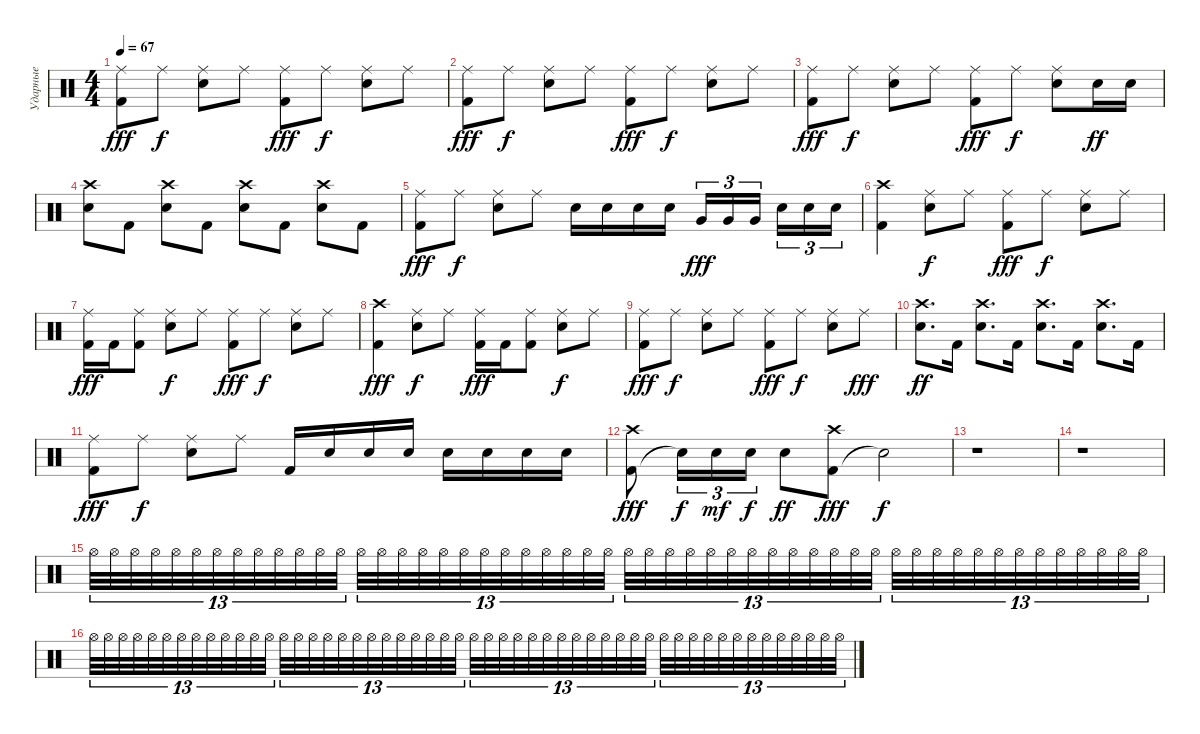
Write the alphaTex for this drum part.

\track ("Ударные" "Ударные") {instrument percussion}
\staff
\articulation defaults
\ts (4 4)
\tempo 67
\clef neutral
\ks c
("Kick (hit) 2" "Ride (middle)").8{dy fff} "Ride (middle)".8{dy f} ("Snare (hit) 2" "Ride (middle)").8 "Ride (middle)".8 ("Kick (hit) 2" "Ride (middle)").8{dy fff} "Ride (middle)".8{dy f} ("Snare (hit) 2" "Ride (middle)").8 "Ride (middle)".8 |
("Kick (hit) 2" "Ride (middle)").8{dy fff} "Ride (middle)".8{dy f} ("Snare (hit) 2" "Ride (middle)").8 "Ride (middle)".8 ("Kick (hit) 2" "Ride (middle)").8{dy fff} "Ride (middle)".8{dy f} ("Snare (hit) 2" "Ride (middle)").8 "Ride (middle)".8 |
("Kick (hit) 2" "Ride (middle)").8{dy fff} "Ride (middle)".8{dy f} ("Snare (hit) 2" "Ride (middle)").8 "Ride (middle)".8 ("Kick (hit) 2" "Ride (middle)").8{dy fff} "Ride (middle)".8{dy f} ("Snare (hit) 2" "Ride (middle)").8 "Electric Snare (hit)".16{dy ff} "Electric Snare (hit)".16 |
("Snare (hit) 2" "Crash high (hit)").8 "Kick (hit) 2".8 ("Snare (hit) 2" "Crash high (hit)").8 "Kick (hit) 2".8 ("Snare (hit) 2" "Crash high (hit)").8 "Kick (hit) 2".8 ("Snare (hit) 2" "Crash high (hit)").8 "Kick (hit) 2".8 |
("Kick (hit) 2" "Ride (middle)").8{dy fff} "Ride (middle)".8{dy f} ("Snare (hit) 2" "Ride (middle)").8 "Ride (middle)".8 "Snare (hit) 2".16 "Snare (hit) 2".16 "Snare (hit) 2".16 "Snare (hit) 2".16 "Very Low Tom (hit)".16{tu (3 2) dy fff} "Very Low Tom (hit)".16{tu (3 2)} "Very Low Tom (hit)".16{tu (3 2) beam splitsecondary} "Electric Snare (hit)".16{tu (3 2)} "Electric Snare (hit)".16{tu (3 2)} "Electric Snare (hit)".16{tu (3 2)} |
("Kick (hit) 2" "Crash high (hit)").4 ("Snare (hit) 2" "Ride (middle)").8{dy f} "Ride (middle)".8 ("Kick (hit) 2" "Ride (middle)").8{dy fff} "Ride (middle)".8{dy f} ("Snare (hit) 2" "Ride (middle)").8 "Ride (middle)".8 |
("Kick (hit) 2" "Ride (middle)").16{dy fff} "Kick (hit) 2".16 ("Kick (hit) 2" "Ride (middle)").8 ("Snare (hit) 2" "Ride (middle)").8{dy f} "Ride (middle)".8 ("Kick (hit) 2" "Ride (middle)").8{dy fff} "Ride (middle)".8{dy f} ("Snare (hit) 2" "Ride (middle)").8 "Ride (middle)".8 |
("Kick (hit) 2" "Crash high (hit)").4{dy fff} ("Snare (hit) 2" "Ride (middle)").8{dy f} "Ride (middle)".8 ("Kick (hit) 2" "Ride (middle)").16{dy fff} "Kick (hit) 2".16 ("Kick (hit) 2" "Ride (middle)").8 ("Snare (hit) 2" "Ride (middle)").8{dy f} "Ride (middle)".8 |
("Kick (hit) 2" "Ride (middle)").8{dy fff} "Ride (middle)".8{dy f} ("Snare (hit) 2" "Ride (middle)").8 "Ride (middle)".8 ("Kick (hit) 2" "Ride (middle)").8{dy fff} "Ride (middle)".8{dy f} ("Snare (hit) 2" "Ride (middle)").8 "Ride (middle)".8{dy fff} |
("Snare (hit) 2" "Crash high (hit)").8{d dy ff} "Kick (hit) 2".16 ("Snare (hit) 2" "Crash high (hit)").8{d} "Kick (hit) 2".16 ("Snare (hit) 2" "Crash high (hit)").8{d} "Kick (hit) 2".16 ("Snare (hit) 2" "Crash high (hit)").8{d} "Kick (hit) 2".16 |
("Kick (hit) 2" "Ride (middle)").8{dy fff} "Ride (middle)".8{dy f} ("Snare (hit) 2" "Ride (middle)").8 "Ride (middle)".8 "Kick (hit) 2".16 "Electric Snare (hit)".16 "Electric Snare (hit)".16 "Electric Snare (hit)".16 "Electric Snare (hit)".16 "Electric Snare (hit)".16 "Electric Snare (hit)".16 "Electric Snare (hit)".16 |
("Kick (hit) 2" "Crash high (hit)").8{dy fff} "Snare (hit)"{t}.16{tu (3 2) dy f} "Snare (hit) 2".16{tu (3 2) dy mf} "Snare (hit) 2".16{tu (3 2) dy f} "Snare (hit) 2".8{dy ff} ("Kick (hit) 2" "Crash high (hit)").8{dy fff} "Snare (hit)"{t}.2{dy f} |
r.1 |
r.1{volume 2} |
"Hi-Hat (open)".32{tu (13 8) volume 11} "Hi-Hat (open)".32{tu (13 8)} "Hi-Hat (open)".32{tu (13 8)} "Hi-Hat (open)".32{tu (13 8)} "Hi-Hat (open)".32{tu (13 8)} "Hi-Hat (open)".32{tu (13 8)} "Hi-Hat (open)".32{tu (13 8)} "Hi-Hat (open)".32{tu (13 8)} "Hi-Hat (open)".32{tu (13 8)} "Hi-Hat (open)".32{tu (13 8)} "Hi-Hat (open)".32{tu (13 8)} "Hi-Hat (open)".32{tu (13 8)} "Hi-Hat (open)".32{tu (13 8)} "Hi-Hat (open)".32{tu (13 8)} "Hi-Hat (open)".32{tu (13 8)} "Hi-Hat (open)".32{tu (13 8)} "Hi-Hat (open)".32{tu (13 8)} "Hi-Hat (open)".32{tu (13 8)} "Hi-Hat (open)".32{tu (13 8)} "Hi-Hat (open)".32{tu (13 8)} "Hi-Hat (open)".32{tu (13 8)} "Hi-Hat (open)".32{tu (13 8)} "Hi-Hat (open)".32{tu (13 8)} "Hi-Hat (open)".32{tu (13 8)} "Hi-Hat (open)".32{tu (13 8)} "Hi-Hat (open)".32{tu (13 8)} "Hi-Hat (open)".32{tu (13 8)} "Hi-Hat (open)".32{tu (13 8)} "Hi-Hat (open)".32{tu (13 8)} "Hi-Hat (open)".32{tu (13 8)} "Hi-Hat (open)".32{tu (13 8)} "Hi-Hat (open)".32{tu (13 8)} "Hi-Hat (open)".32{tu (13 8)} "Hi-Hat (open)".32{tu (13 8)} "Hi-Hat (open)".32{tu (13 8)} "Hi-Hat (open)".32{tu (13 8)} "Hi-Hat (open)".32{tu (13 8)} "Hi-Hat (open)".32{tu (13 8)} "Hi-Hat (open)".32{tu (13 8)} "Hi-Hat (open)".32{tu (13 8)} "Hi-Hat (open)".32{tu (13 8)} "Hi-Hat (open)".32{tu (13 8)} "Hi-Hat (open)".32{tu (13 8)} "Hi-Hat (open)".32{tu (13 8)} "Hi-Hat (open)".32{tu (13 8)} "Hi-Hat (open)".32{tu (13 8)} "Hi-Hat (open)".32{tu (13 8)} "Hi-Hat (open)".32{tu (13 8)} "Hi-Hat (open)".32{tu (13 8)} "Hi-Hat (open)".32{tu (13 8)} "Hi-Hat (open)".32{tu (13 8)} "Hi-Hat (open)".32{tu (13 8)} |
"Hi-Hat (open)".32{tu (13 8)} "Hi-Hat (open)".32{tu (13 8)} "Hi-Hat (open)".32{tu (13 8)} "Hi-Hat (open)".32{tu (13 8)} "Hi-Hat (open)".32{tu (13 8)} "Hi-Hat (open)".32{tu (13 8)} "Hi-Hat (open)".32{tu (13 8)} "Hi-Hat (open)".32{tu (13 8)} "Hi-Hat (open)".32{tu (13 8)} "Hi-Hat (open)".32{tu (13 8)} "Hi-Hat (open)".32{tu (13 8)} "Hi-Hat (open)".32{tu (13 8)} "Hi-Hat (open)".32{tu (13 8)} "Hi-Hat (open)".32{tu (13 8)} "Hi-Hat (open)".32{tu (13 8)} "Hi-Hat (open)".32{tu (13 8)} "Hi-Hat (open)".32{tu (13 8)} "Hi-Hat (open)".32{tu (13 8)} "Hi-Hat (open)".32{tu (13 8)} "Hi-Hat (open)".32{tu (13 8)} "Hi-Hat (open)".32{tu (13 8)} "Hi-Hat (open)".32{tu (13 8)} "Hi-Hat (open)".32{tu (13 8)} "Hi-Hat (open)".32{tu (13 8)} "Hi-Hat (open)".32{tu (13 8)} "Hi-Hat (open)".32{tu (13 8)} "Hi-Hat (open)".32{tu (13 8) volume 4} "Hi-Hat (open)".32{tu (13 8)} "Hi-Hat (open)".32{tu (13 8)} "Hi-Hat (open)".32{tu (13 8)} "Hi-Hat (open)".32{tu (13 8)} "Hi-Hat (open)".32{tu (13 8)} "Hi-Hat (open)".32{tu (13 8)} "Hi-Hat (open)".32{tu (13 8)} "Hi-Hat (open)".32{tu (13 8)} "Hi-Hat (open)".32{tu (13 8)} "Hi-Hat (open)".32{tu (13 8)} "Hi-Hat (open)".32{tu (13 8)} "Hi-Hat (open)".32{tu (13 8)} "Hi-Hat (open)".32{tu (13 8)} "Hi-Hat (open)".32{tu (13 8)} "Hi-Hat (open)".32{tu (13 8)} "Hi-Hat (open)".32{tu (13 8)} "Hi-Hat (open)".32{tu (13 8)} "Hi-Hat (open)".32{tu (13 8)} "Hi-Hat (open)".32{tu (13 8)} "Hi-Hat (open)".32{tu (13 8)} "Hi-Hat (open)".32{tu (13 8)} "Hi-Hat (open)".32{tu (13 8)} "Hi-Hat (open)".32{tu (13 8)} "Hi-Hat (open)".32{tu (13 8)} "Hi-Hat (open)".32{tu (13 8)}
